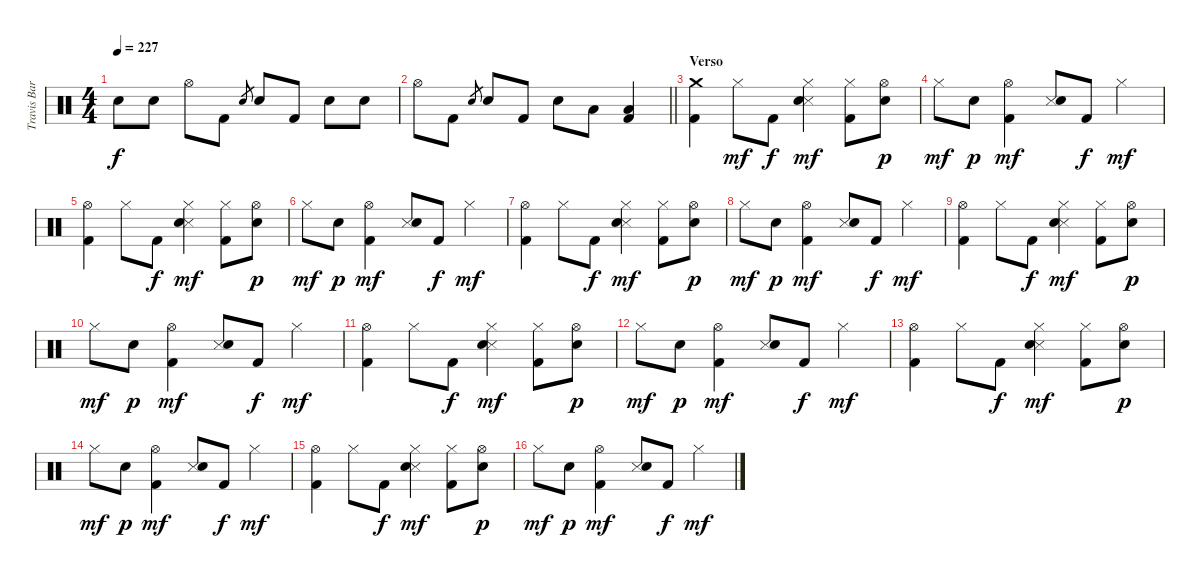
\track ("Travis Barker - Drum" "Travis Bar") {instrument percussion}
\staff {score}
\articulation defaults
\ts (4 4)
\tempo 227
\clef neutral
\ks c "Electric Snare (hit)".8{dy f} "Electric Snare (hit)".8 "Hi-Hat (open)".8 "Kick (hit) 2".8 "Electric Snare (hit)".8{gr} "Electric Snare (hit)".8 "Kick (hit) 2".8 "Electric Snare (hit)".8 "Electric Snare (hit)".8
|
\barLineRight lightlight "Hi-Hat (open)".8 "Kick (hit) 2".8 "Electric Snare (hit)".8{gr} "Electric Snare (hit)".8 "Kick (hit) 2".8 "Electric Snare (hit)".8 "Low Tom (hit)".8
("Low Floor Tom (hit)" "Kick (hit) 2").4 |
\section ("" "Verso")
("Crash medium (hit)" "Kick (hit) 2").4 "Hi-Hat (closed)".8{dy mf} "Kick (hit) 2".8{dy f} ("Hi-Hat (closed)" "Snare (side stick) 3" "Electric Snare (hit)").4{dy mf} ("Hi-Hat (closed)" "Kick (hit) 2").8 ("Hi-Hat (open)" "Electric Snare (hit)").8{dy p} |
"Hi-Hat (closed)".8{dy mf} "Electric Snare (hit)".8{dy p} ("Hi-Hat (open)" "Kick (hit) 2").4{dy mf} ("Snare (side stick) 3" "Electric Snare (hit)").8 "Kick (hit) 2".8{dy f} "Hi-Hat (closed)".4{dy mf} |
("Hi-Hat (open)" "Kick (hit) 2").4 "Hi-Hat (closed)".8 "Kick (hit) 2".8{dy f} ("Hi-Hat (closed)" "Snare (side stick) 3" "Electric Snare (hit)").4{dy mf} ("Hi-Hat (closed)" "Kick (hit) 2").8 ("Hi-Hat (open)" "Electric Snare (hit)").8{dy p} |
"Hi-Hat (closed)".8{dy mf} "Electric Snare (hit)".8{dy p} ("Hi-Hat (open)" "Kick (hit) 2").4{dy mf} ("Snare (side stick) 3" "Electric Snare (hit)").8 "Kick (hit) 2".8{dy f} "Hi-Hat (closed)".4{dy mf} |
("Hi-Hat (open)" "Kick (hit) 2").4 "Hi-Hat (closed)".8 "Kick (hit) 2".8{dy f} ("Hi-Hat (closed)" "Snare (side stick) 3" "Electric Snare (hit)").4{dy mf} ("Hi-Hat (closed)" "Kick (hit) 2").8 ("Hi-Hat (open)" "Electric Snare (hit)").8{dy p} |
"Hi-Hat (closed)".8{dy mf} "Electric Snare (hit)".8{dy p} ("Hi-Hat (open)" "Kick (hit) 2").4{dy mf} ("Snare (side stick) 3" "Electric Snare (hit)").8 "Kick (hit) 2".8{dy f} "Hi-Hat (closed)".4{dy mf} |
("Hi-Hat (open)" "Kick (hit) 2").4 "Hi-Hat (closed)".8 "Kick (hit) 2".8{dy f} ("Hi-Hat (closed)" "Snare (side stick) 3" "Electric Snare (hit)").4{dy mf} ("Hi-Hat (closed)" "Kick (hit) 2").8 ("Hi-Hat (open)" "Electric Snare (hit)").8{dy p} |
"Hi-Hat (closed)".8{dy mf} "Electric Snare (hit)".8{dy p} ("Hi-Hat (open)" "Kick (hit) 2").4{dy mf} ("Snare (side stick) 3" "Electric Snare (hit)").8 "Kick (hit) 2".8{dy f} "Hi-Hat (closed)".4{dy mf} |
("Hi-Hat (open)" "Kick (hit) 2").4 "Hi-Hat (closed)".8 "Kick (hit) 2".8{dy f} ("Hi-Hat (closed)" "Snare (side stick) 3" "Electric Snare (hit)").4{dy mf} ("Hi-Hat (closed)" "Kick (hit) 2").8 ("Hi-Hat (open)" "Electric Snare (hit)").8{dy p} |
"Hi-Hat (closed)".8{dy mf} "Electric Snare (hit)".8{dy p} ("Hi-Hat (open)" "Kick (hit) 2").4{dy mf} ("Snare (side stick) 3" "Electric Snare (hit)").8 "Kick (hit) 2".8{dy f} "Hi-Hat (closed)".4{dy mf} |
("Hi-Hat (open)" "Kick (hit) 2").4 "Hi-Hat (closed)".8 "Kick (hit) 2".8{dy f} ("Hi-Hat (closed)" "Snare (side stick) 3" "Electric Snare (hit)").4{dy mf} ("Hi-Hat (closed)" "Kick (hit) 2").8 ("Hi-Hat (open)" "Electric Snare (hit)").8{dy p} |
"Hi-Hat (closed)".8{dy mf} "Electric Snare (hit)".8{dy p} ("Hi-Hat (open)" "Kick (hit) 2").4{dy mf} ("Snare (side stick) 3" "Electric Snare (hit)").8 "Kick (hit) 2".8{dy f} "Hi-Hat (closed)".4{dy mf} |
("Hi-Hat (open)" "Kick (hit) 2").4 "Hi-Hat (closed)".8 "Kick (hit) 2".8{dy f} ("Hi-Hat (closed)" "Snare (side stick) 3" "Electric Snare (hit)").4{dy mf} ("Hi-Hat (closed)" "Kick (hit) 2").8 ("Hi-Hat (open)" "Electric Snare (hit)").8{dy p} |
"Hi-Hat (closed)".8{dy mf} "Electric Snare (hit)".8{dy p} ("Hi-Hat (open)" "Kick (hit) 2").4{dy mf} ("Snare (side stick) 3" "Electric Snare (hit)").8 "Kick (hit) 2".8{dy f} "Hi-Hat (closed)".4{dy mf}
